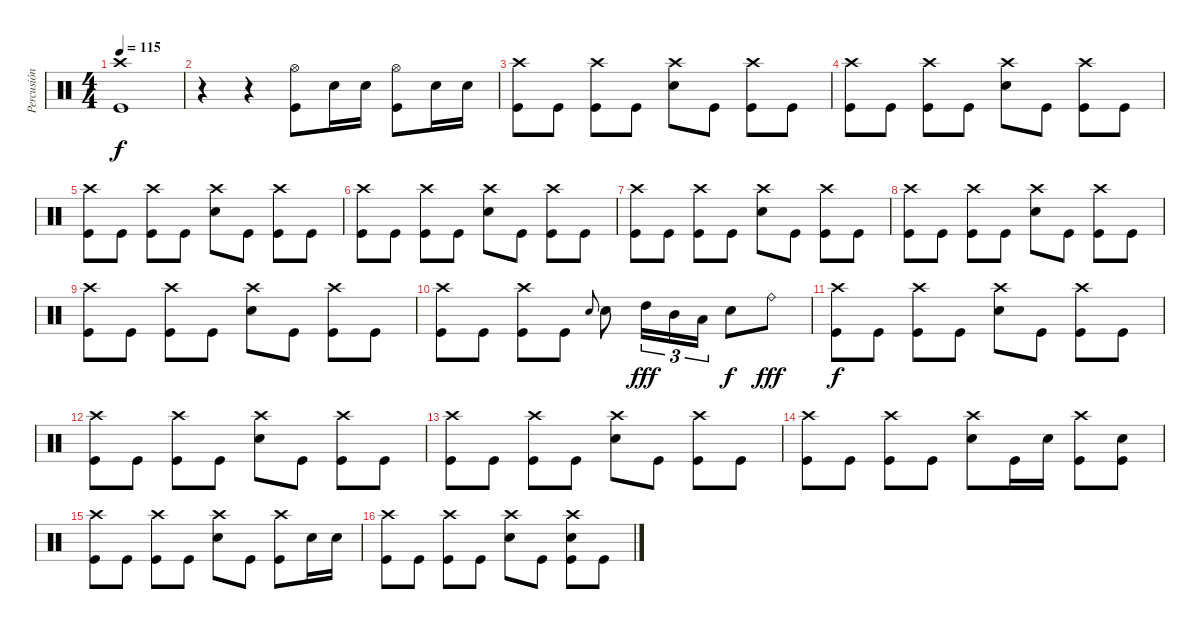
\track ("Percusión" "Percusión") {instrument percussion}
\staff {score}
\articulation defaults
\ts (4 4)
\tempo 115
\clef neutral
\ks c
("Crash high (hit)" "Kick (hit)").1{dy f} |
r.4 r.4 ("Hi-Hat (open)" "Kick (hit)").8 "Electric Snare (hit)".16 "Electric Snare (hit)".16 ("Hi-Hat (open)" "Kick (hit)").8 "Electric Snare (hit)".16 "Electric Snare (hit)".16 |
("Crash high (hit)" "Kick (hit)").8 "Kick (hit)".8 ("Crash high (hit)" "Kick (hit)").8 "Kick (hit)".8 ("Crash high (hit)" "Electric Snare (hit)").8 "Kick (hit)".8 ("Crash high (hit)" "Kick (hit)").8 "Kick (hit)".8 |
("Crash high (hit)" "Kick (hit)").8 "Kick (hit)".8 ("Crash high (hit)" "Kick (hit)").8 "Kick (hit)".8 ("Crash high (hit)" "Electric Snare (hit)").8 "Kick (hit)".8 ("Crash high (hit)" "Kick (hit)").8 "Kick (hit)".8 |
("Crash high (hit)" "Kick (hit)").8 "Kick (hit)".8 ("Crash high (hit)" "Kick (hit)").8 "Kick (hit)".8 ("Crash high (hit)" "Electric Snare (hit)").8 "Kick (hit)".8 ("Crash high (hit)" "Kick (hit)").8 "Kick (hit)".8 |
("Crash high (hit)" "Kick (hit)").8 "Kick (hit)".8 ("Crash high (hit)" "Kick (hit)").8 "Kick (hit)".8 ("Crash high (hit)" "Electric Snare (hit)").8 "Kick (hit)".8 ("Crash high (hit)" "Kick (hit)").8 "Kick (hit)".8 |
("Crash high (hit)" "Kick (hit)").8 "Kick (hit)".8 ("Crash high (hit)" "Kick (hit)").8 "Kick (hit)".8 ("Crash high (hit)" "Electric Snare (hit)").8 "Kick (hit)".8 ("Crash high (hit)" "Kick (hit)").8 "Kick (hit)".8 |
("Crash high (hit)" "Kick (hit)").8 "Kick (hit)".8 ("Crash high (hit)" "Kick (hit)").8 "Kick (hit)".8 ("Crash high (hit)" "Electric Snare (hit)").8 "Kick (hit)".8 ("Crash high (hit)" "Kick (hit)").8 "Kick (hit)".8 |
("Crash high (hit)" "Kick (hit)").8 "Kick (hit)".8 ("Crash high (hit)" "Kick (hit)").8 "Kick (hit)".8 ("Crash high (hit)" "Electric Snare (hit)").8 "Kick (hit)".8 ("Crash high (hit)" "Kick (hit)").8 "Kick (hit)".8 |
("Crash high (hit)" "Kick (hit)").8 "Kick (hit)".8 ("Crash high (hit)" "Kick (hit)").8 "Kick (hit)".8 "Electric Snare (hit)".8{gr onbeat} "Electric Snare (hit)".8 "High Tom (hit)".16{tu (3 2) dy fff} "Mid Tom (hit)".16{tu (3 2)} "Low Tom (hit)".16{tu (3 2)} "Electric Snare (hit)".8{dy f} "Ride (bell)".8{dy fff} |
("Crash high (hit)" "Kick (hit)").8{dy f} "Kick (hit)".8 ("Crash high (hit)" "Kick (hit)").8 "Kick (hit)".8 ("Crash high (hit)" "Electric Snare (hit)").8 "Kick (hit)".8 ("Crash high (hit)" "Kick (hit)").8 "Kick (hit)".8 |
("Crash high (hit)" "Kick (hit)").8 "Kick (hit)".8 ("Crash high (hit)" "Kick (hit)").8 "Kick (hit)".8 ("Crash high (hit)" "Electric Snare (hit)").8 "Kick (hit)".8 ("Crash high (hit)" "Kick (hit)").8 "Kick (hit)".8 |
("Crash high (hit)" "Kick (hit)").8 "Kick (hit)".8 ("Crash high (hit)" "Kick (hit)").8 "Kick (hit)".8 ("Crash high (hit)" "Electric Snare (hit)").8 "Kick (hit)".8 ("Crash high (hit)" "Kick (hit)").8 "Kick (hit)".8 |
("Crash high (hit)" "Kick (hit)").8 "Kick (hit)".8 ("Crash high (hit)" "Kick (hit)").8 "Kick (hit)".8 ("Crash high (hit)" "Electric Snare (hit)").8 "Kick (hit)".16 "Electric Snare (hit)".16 ("Crash high (hit)" "Kick (hit)").8 ("Electric Snare (hit)" "Kick (hit)").8 |
("Crash high (hit)" "Kick (hit)").8 "Kick (hit)".8 ("Crash high (hit)" "Kick (hit)").8 "Kick (hit)".8 ("Crash high (hit)" "Electric Snare (hit)").8 "Kick (hit)".8 ("Crash high (hit)" "Kick (hit)").8 "Electric Snare (hit)".16 "Electric Snare (hit)".16 |
("Crash high (hit)" "Kick (hit)").8 "Kick (hit)".8 ("Crash high (hit)" "Kick (hit)").8 "Kick (hit)".8 ("Crash high (hit)" "Electric Snare (hit)").8 "Kick (hit)".8 ("Crash high (hit)" "Electric Snare (hit)" "Kick (hit)").8 "Kick (hit)".8
